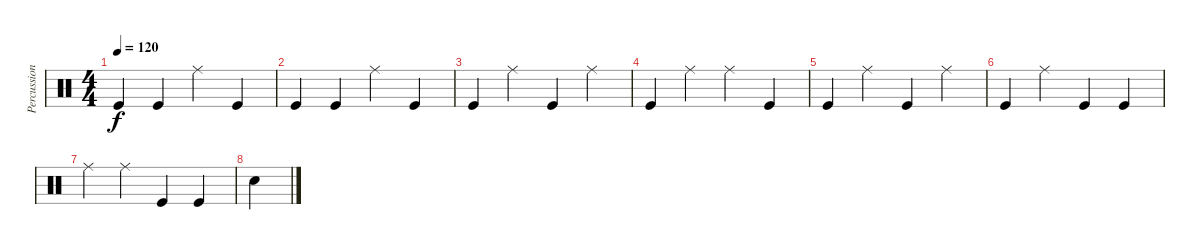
\track ("Percussion" "Percussion") {instrument percussion}
\staff {score}
\articulation defaults
\ts (4 4)
\tempo 120
\clef neutral
\ks c "Kick (hit)".4{dy f} "Kick (hit)".4 "Ride (middle)".4 "Kick (hit)".4
|
"Kick (hit)".4 "Kick (hit)".4 "Ride (middle)".4 "Kick (hit)".4 |
"Kick (hit)".4 "Ride (middle)".4 "Kick (hit)".4 "Ride (middle)".4 |
"Kick (hit)".4 "Ride (middle)".4 "Ride (middle)".4 "Kick (hit)".4 |
"Kick (hit)".4 "Ride (middle)".4 "Kick (hit)".4 "Ride (middle)".4 |
"Kick (hit)".4 "Ride (middle)".4 "Kick (hit)".4 "Kick (hit)".4 |
"Ride (middle)".4 "Ride (middle)".4 "Kick (hit)".4 "Kick (hit)".4 |
"Snare (hit)".4
